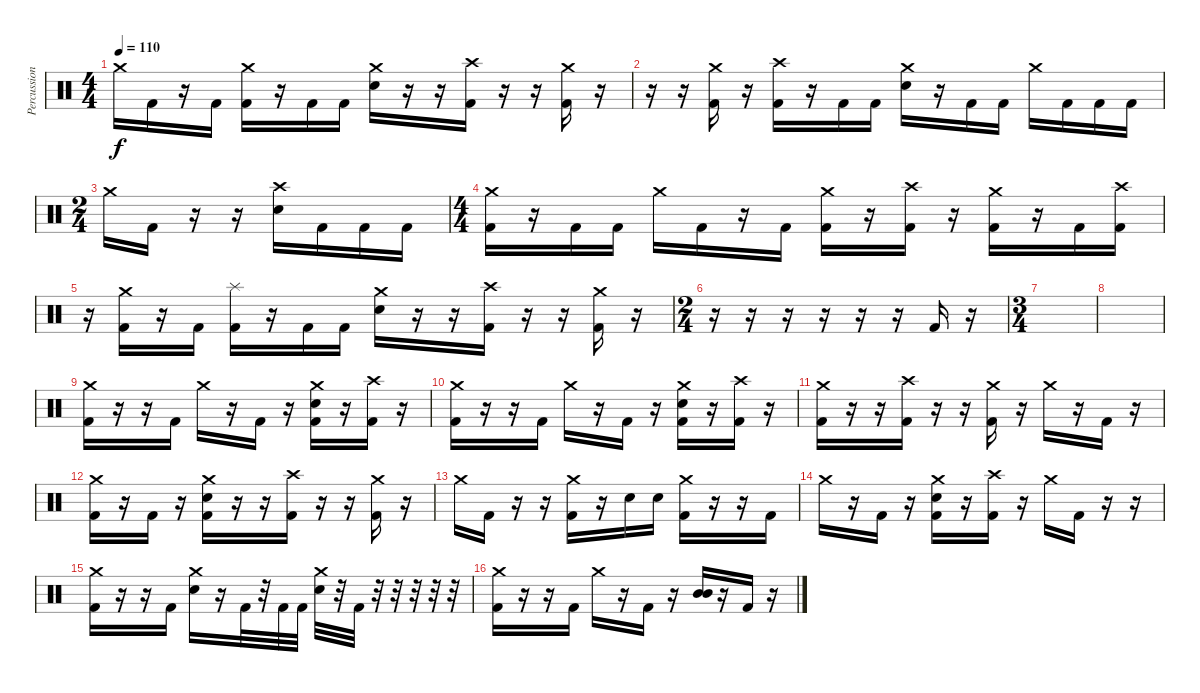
\track ("Percussion" "Percussion") {instrument percussion}
\staff {score}
\articulation defaults
\ts (4 4)
\tempo 110
\clef neutral
\ks c "Crash medium (hit)".16{dy f} "Kick (hit) 2".16
r.16 "Kick (hit) 2".16 ("Crash medium (hit)" "Kick (hit) 2").16 r.16 "Kick (hit) 2".16 "Kick (hit) 2".16 ("Crash medium (hit)" "Snare (hit) 2").16 r.16 r.16 ("Crash high (hit)" "Kick (hit) 2").16 r.16 r.16 ("Crash medium (hit)" "Kick (hit) 2").16 r.16 |
r.16 r.16 ("Crash medium (hit)" "Kick (hit) 2").16 r.16 ("Crash high (hit)" "Kick (hit) 2").16 r.16 "Kick (hit) 2".16 "Kick (hit) 2".16 ("Crash medium (hit)" "Snare (hit) 2").16 r.16 "Kick (hit) 2".16 "Kick (hit) 2".16 "Crash medium (hit)".16 "Kick (hit) 2".16 "Kick (hit) 2".16 "Kick (hit) 2".16 |
\ts (2 4)
"Crash medium (hit)".16 "Kick (hit) 2".16 r.16 r.16 ("Crash high (hit)" "Snare (hit) 2").16 "Kick (hit) 2".16 "Kick (hit) 2".16 "Kick (hit) 2".16 |
\ts (4 4)
("Crash medium (hit)" "Kick (hit) 2").16 r.16 "Kick (hit) 2".16 "Kick (hit) 2".16 "Crash medium (hit)".16 "Kick (hit) 2".16 r.16 "Kick (hit) 2".16 ("Crash medium (hit)" "Kick (hit) 2").16 r.16 ("Crash high (hit)" "Kick (hit) 2").16 r.16 ("Crash medium (hit)" "Kick (hit) 2").16 r.16 "Kick (hit) 2".16 ("Crash high (hit)" "Kick (hit) 2").16 |
r.16 ("Crash medium (hit)" "Kick (hit) 2").16 r.16 "Kick (hit) 2".16 ("Splash (hit)" "Kick (hit) 2").16 r.16 "Kick (hit) 2".16 "Kick (hit) 2".16 ("Crash medium (hit)" "Snare (hit) 2").16 r.16 r.16 ("Crash high (hit)" "Kick (hit) 2").16 r.16 r.16 ("Crash medium (hit)" "Kick (hit) 2").16 r.16 |
\ts (2 4)
r.16 r.16 r.16 r.16 r.16 r.16 "Kick (hit) 2".16 r.16 |
\ts (3 4)
|
|
("Crash medium (hit)" "Kick (hit) 2").16 r.16 r.16 "Kick (hit) 2".16 "Crash medium (hit)".16 r.16 "Kick (hit) 2".16 r.16 ("Crash medium (hit)" "Electric Snare (hit)" "Kick (hit) 2").16 r.16 ("Crash high (hit)" "Kick (hit) 2").16 r.16 |
("Crash medium (hit)" "Kick (hit) 2").16 r.16 r.16 "Kick (hit) 2".16 "Crash medium (hit)".16 r.16 "Kick (hit) 2".16 r.16 ("Crash medium (hit)" "Electric Snare (hit)" "Kick (hit) 2").16 r.16 ("Crash high (hit)" "Kick (hit) 2").16 r.16 |
("Crash medium (hit)" "Kick (hit) 2").16 r.16 r.16 ("Crash high (hit)" "Kick (hit) 2").16 r.16 r.16 ("Crash medium (hit)" "Kick (hit) 2").16 r.16 "Crash medium (hit)".16 r.16 "Kick (hit) 2".16 r.16 |
("Crash medium (hit)" "Kick (hit) 2").16 r.16 "Kick (hit) 2".16 r.16 ("Crash medium (hit)" "Electric Snare (hit)" "Kick (hit) 2").16 r.16 r.16 ("Crash high (hit)" "Kick (hit) 2").16 r.16 r.16 ("Crash medium (hit)" "Kick (hit) 2").16 r.16 |
"Crash medium (hit)".16 "Kick (hit) 2".16 r.16 r.16 ("Crash medium (hit)" "Kick (hit) 2").16 r.16 "Electric Snare (hit)".16 "Electric Snare (hit)".16 ("Crash medium (hit)" "Kick (hit) 2").16 r.16 r.16 "Kick (hit) 2".16 |
"Crash medium (hit)".16 r.16 "Kick (hit) 2".16 r.16 ("Crash medium (hit)" "Electric Snare (hit)" "Kick (hit) 2").16 r.16 ("Crash high (hit)" "Kick (hit) 2").16 r.16 "Crash medium (hit)".16 "Kick (hit) 2".16 r.16 r.16 |
("Crash medium (hit)" "Kick (hit) 2").16 r.16 r.16 "Kick (hit) 2".16 ("Crash medium (hit)" "Electric Snare (hit)").16 r.16 "Kick (hit) 2".32 r.32 "Kick (hit) 2".32 "Kick (hit) 2".32 ("Crash medium (hit)" "Electric Snare (hit)").32 r.32 "Kick (hit) 2".32 r.32 r.32 r.32 r.32 r.32 |
("Crash medium (hit)" "Kick (hit) 2").16 r.16 r.16 "Kick (hit) 2".16 "Crash medium (hit)".16 r.16 "Kick (hit) 2".16 r.16 ("Mid Tom (hit)" "Mid Tom (hit)").16 r.16 "Kick (hit) 2".16 r.16
